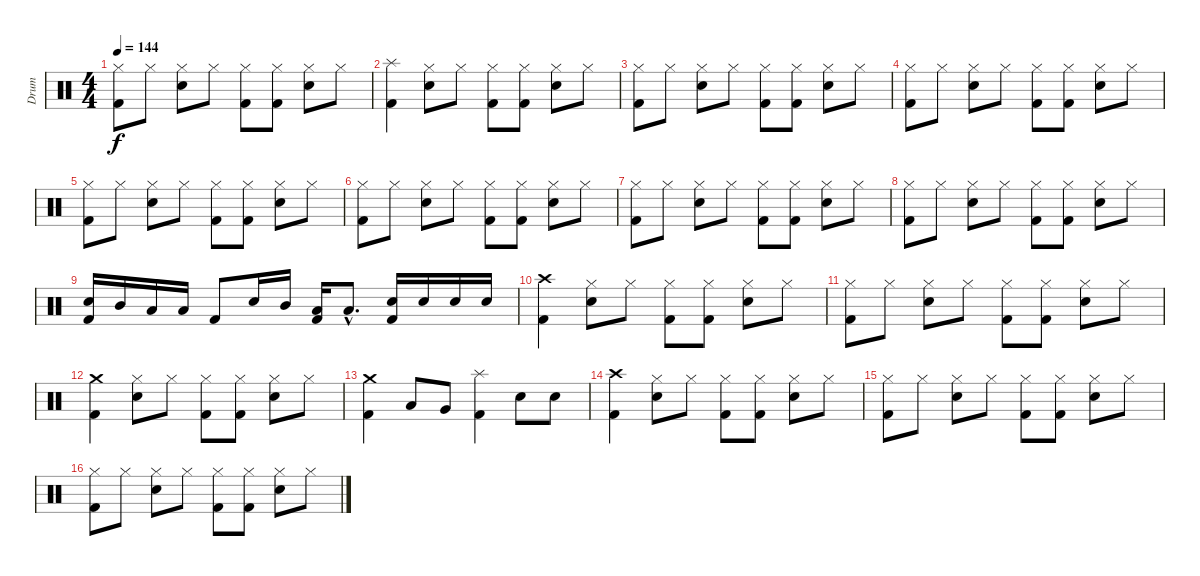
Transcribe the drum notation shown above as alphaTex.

\track ("Drum" "Drum") {instrument percussion}
\staff {score}
\articulation defaults
\ts (4 4)
\tempo 144
\clef neutral
\ks c
("Hi-Hat (closed)" "Kick (hit) 2").8{dy f} "Hi-Hat (closed)".8 ("Hi-Hat (closed)" "Electric Snare (hit)").8 "Hi-Hat (closed)".8 ("Hi-Hat (closed)" "Kick (hit) 2").8 ("Hi-Hat (closed)" "Kick (hit) 2").8 ("Hi-Hat (closed)" "Electric Snare (hit)").8 "Hi-Hat (closed)".8 |
("Splash (hit)" "Kick (hit) 2").4 ("Hi-Hat (closed)" "Electric Snare (hit)").8 "Hi-Hat (closed)".8 ("Hi-Hat (closed)" "Kick (hit) 2").8 ("Hi-Hat (closed)" "Kick (hit) 2").8 ("Hi-Hat (closed)" "Electric Snare (hit)").8 "Hi-Hat (closed)".8 |
("Hi-Hat (closed)" "Kick (hit) 2").8 "Hi-Hat (closed)".8 ("Hi-Hat (closed)" "Electric Snare (hit)").8 "Hi-Hat (closed)".8 ("Hi-Hat (closed)" "Kick (hit) 2").8 ("Hi-Hat (closed)" "Kick (hit) 2").8 ("Hi-Hat (closed)" "Electric Snare (hit)").8 "Hi-Hat (closed)".8 |
("Hi-Hat (closed)" "Kick (hit) 2").8 "Hi-Hat (closed)".8 ("Hi-Hat (closed)" "Electric Snare (hit)").8 "Hi-Hat (closed)".8 ("Hi-Hat (closed)" "Kick (hit) 2").8 ("Hi-Hat (closed)" "Kick (hit) 2").8 ("Hi-Hat (closed)" "Electric Snare (hit)").8 "Hi-Hat (closed)".8 |
("Hi-Hat (closed)" "Kick (hit) 2").8 "Hi-Hat (closed)".8 ("Hi-Hat (closed)" "Electric Snare (hit)").8 "Hi-Hat (closed)".8 ("Hi-Hat (closed)" "Kick (hit) 2").8 ("Hi-Hat (closed)" "Kick (hit) 2").8 ("Hi-Hat (closed)" "Electric Snare (hit)").8 "Hi-Hat (closed)".8 |
("Hi-Hat (closed)" "Kick (hit) 2").8 "Hi-Hat (closed)".8 ("Hi-Hat (closed)" "Electric Snare (hit)").8 "Hi-Hat (closed)".8 ("Hi-Hat (closed)" "Kick (hit) 2").8 ("Hi-Hat (closed)" "Kick (hit) 2").8 ("Hi-Hat (closed)" "Electric Snare (hit)").8 "Hi-Hat (closed)".8 |
("Hi-Hat (closed)" "Kick (hit) 2").8 "Hi-Hat (closed)".8 ("Hi-Hat (closed)" "Electric Snare (hit)").8 "Hi-Hat (closed)".8 ("Hi-Hat (closed)" "Kick (hit) 2").8 ("Hi-Hat (closed)" "Kick (hit) 2").8 ("Hi-Hat (closed)" "Electric Snare (hit)").8 "Hi-Hat (closed)".8 |
("Hi-Hat (closed)" "Kick (hit) 2").8 "Hi-Hat (closed)".8 ("Hi-Hat (closed)" "Electric Snare (hit)").8 "Hi-Hat (closed)".8 ("Hi-Hat (closed)" "Kick (hit) 2").8 ("Hi-Hat (closed)" "Kick (hit) 2").8 ("Hi-Hat (closed)" "Electric Snare (hit)").8 "Hi-Hat (closed)".8 |
("Electric Snare (hit)" "Kick (hit) 2").16 "Mid Tom (hit)".16 "Low Tom (hit)".16 "Low Floor Tom (hit)".16 "Kick (hit) 2".8 "Electric Snare (hit)".16 "Mid Tom (hit)".16 ("Low Tom (hit)" "Kick (hit) 2").16 "Low Floor Tom (hit)"{hac}.8{d} ("Electric Snare (hit)" "Kick (hit) 2").16 "Electric Snare (hit)".16 "Electric Snare (hit)".16 "Electric Snare (hit)".16 |
("Crash high (hit)" "Kick (hit) 2").4 ("Hi-Hat (closed)" "Electric Snare (hit)").8 "Hi-Hat (closed)".8 ("Hi-Hat (closed)" "Kick (hit) 2").8 ("Hi-Hat (closed)" "Kick (hit) 2").8 ("Hi-Hat (closed)" "Electric Snare (hit)").8 "Hi-Hat (closed)".8 |
("Hi-Hat (closed)" "Kick (hit) 2").8 "Hi-Hat (closed)".8 ("Hi-Hat (closed)" "Electric Snare (hit)").8 "Hi-Hat (closed)".8 ("Hi-Hat (closed)" "Kick (hit) 2").8 ("Hi-Hat (closed)" "Kick (hit) 2").8 ("Hi-Hat (closed)" "Electric Snare (hit)").8 "Hi-Hat (closed)".8 |
("Crash medium (hit)" "Kick (hit) 2").4 ("Hi-Hat (closed)" "Electric Snare (hit)").8 "Hi-Hat (closed)".8 ("Hi-Hat (closed)" "Kick (hit) 2").8 ("Hi-Hat (closed)" "Kick (hit) 2").8 ("Hi-Hat (closed)" "Electric Snare (hit)").8 "Hi-Hat (closed)".8 |
("Crash medium (hit)" "Kick (hit) 2").4 "Low Tom (hit)".8 "Very Low Tom (hit)".8 ("Splash (hit)" "Kick (hit) 2").4 "Electric Snare (hit)".8 "Electric Snare (hit)".8 |
("Crash high (hit)" "Kick (hit) 2").4 ("Hi-Hat (closed)" "Electric Snare (hit)").8 "Hi-Hat (closed)".8 ("Hi-Hat (closed)" "Kick (hit) 2").8 ("Hi-Hat (closed)" "Kick (hit) 2").8 ("Hi-Hat (closed)" "Electric Snare (hit)").8 "Hi-Hat (closed)".8 |
("Hi-Hat (closed)" "Kick (hit) 2").8 "Hi-Hat (closed)".8 ("Hi-Hat (closed)" "Electric Snare (hit)").8 "Hi-Hat (closed)".8 ("Hi-Hat (closed)" "Kick (hit) 2").8 ("Hi-Hat (closed)" "Kick (hit) 2").8 ("Hi-Hat (closed)" "Electric Snare (hit)").8 "Hi-Hat (closed)".8 |
("Hi-Hat (closed)" "Kick (hit) 2").8 "Hi-Hat (closed)".8 ("Hi-Hat (closed)" "Electric Snare (hit)").8 "Hi-Hat (closed)".8 ("Hi-Hat (closed)" "Kick (hit) 2").8 ("Hi-Hat (closed)" "Kick (hit) 2").8 ("Hi-Hat (closed)" "Electric Snare (hit)").8 "Hi-Hat (closed)".8
